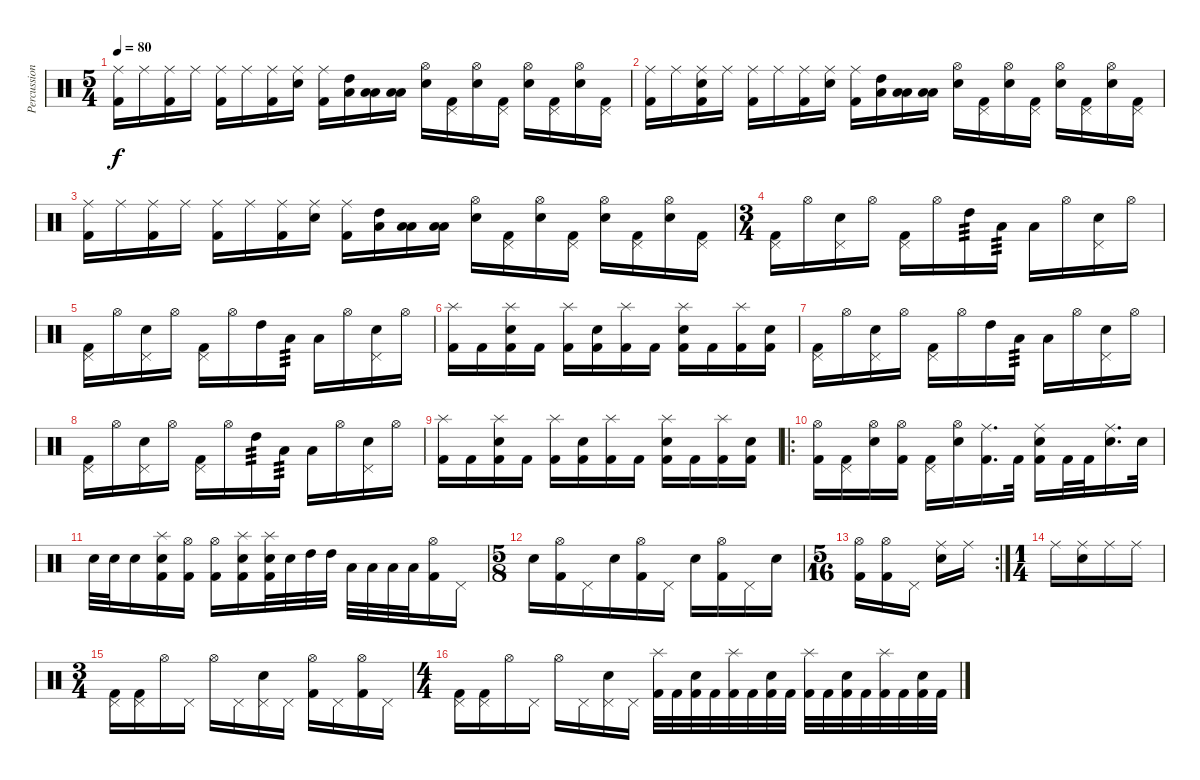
\track ("Percussion" "Percussion") {instrument percussion}
\staff {score}
\articulation defaults
\ts (5 4)
\tempo 80
\clef neutral
\ks c
("Ride (middle)" "Kick (hit) 2").16{dy f} "Ride (middle)".16 ("Ride (middle)" "Kick (hit) 2").16 "Ride (middle)".16 ("Ride (middle)" "Kick (hit) 2").16 "Ride (middle)".16 ("Ride (middle)" "Kick (hit) 2").16 ("Ride (middle)" "Electric Snare (hit)").16 ("Ride (middle)" "Kick (hit) 2").16 ("High Tom (hit)" "Low Tom (hit)").16 ("Low Tom (hit)" "Low Floor Tom (hit)").16 ("Low Floor Tom (hit)" "Low Floor Tom (hit)").16 ("Hi-Hat (open)" "Electric Snare (hit)").16 ("Pedal Hi-Hat (hit)" "Kick (hit) 2").16 ("Hi-Hat (open)" "Electric Snare (hit)").16 ("Pedal Hi-Hat (hit)" "Kick (hit) 2").16 ("Hi-Hat (open)" "Electric Snare (hit)").16 ("Pedal Hi-Hat (hit)" "Kick (hit) 2").16 ("Hi-Hat (open)" "Electric Snare (hit)").16 ("Pedal Hi-Hat (hit)" "Kick (hit) 2").16 |
("Ride (middle)" "Kick (hit) 2").16 "Ride (middle)".16 ("Ride (middle)" "Electric Snare (hit)" "Kick (hit) 2").16 "Ride (middle)".16 ("Ride (middle)" "Kick (hit) 2").16 "Ride (middle)".16 ("Ride (middle)" "Kick (hit) 2").16 ("Ride (middle)" "Electric Snare (hit)").16 ("Ride (middle)" "Kick (hit) 2").16 ("High Tom (hit)" "Low Tom (hit)").16 ("Low Tom (hit)" "Low Floor Tom (hit)").16 ("Low Floor Tom (hit)" "Low Floor Tom (hit)").16 ("Hi-Hat (open)" "Electric Snare (hit)").16 ("Pedal Hi-Hat (hit)" "Kick (hit) 2").16 ("Hi-Hat (open)" "Electric Snare (hit)").16 ("Pedal Hi-Hat (hit)" "Kick (hit) 2").16 ("Hi-Hat (open)" "Electric Snare (hit)").16 ("Pedal Hi-Hat (hit)" "Kick (hit) 2").16 ("Hi-Hat (open)" "Electric Snare (hit)").16 ("Pedal Hi-Hat (hit)" "Kick (hit) 2").16 |
("Ride (middle)" "Kick (hit) 2").16 "Ride (middle)".16 ("Ride (middle)" "Kick (hit) 2").16 "Ride (middle)".16 ("Ride (middle)" "Kick (hit) 2").16 "Ride (middle)".16 ("Ride (middle)" "Kick (hit) 2").16 ("Ride (middle)" "Electric Snare (hit)").16 ("Ride (middle)" "Kick (hit) 2").16 ("High Tom (hit)" "Low Tom (hit)").16 ("Low Tom (hit)" "Low Floor Tom (hit)").16 ("Low Floor Tom (hit)" "Low Floor Tom (hit)").16 ("Hi-Hat (open)" "Electric Snare (hit)").16 ("Pedal Hi-Hat (hit)" "Kick (hit) 2").16 ("Hi-Hat (open)" "Electric Snare (hit)").16 ("Pedal Hi-Hat (hit)" "Kick (hit) 2").16 ("Hi-Hat (open)" "Electric Snare (hit)").16 ("Pedal Hi-Hat (hit)" "Kick (hit) 2").16 ("Hi-Hat (open)" "Electric Snare (hit)").16 ("Pedal Hi-Hat (hit)" "Kick (hit) 2").16 |
\ts (3 4)
("Pedal Hi-Hat (hit)" "Kick (hit) 2").16 "Hi-Hat (open)".16 ("Pedal Hi-Hat (hit)" "Electric Snare (hit)").16 "Hi-Hat (open)".16 ("Pedal Hi-Hat (hit)" "Kick (hit) 2").16 "Hi-Hat (open)".16 "High Tom (hit)".16{tp 3} "Low Tom (hit)".16{tp 3} "Low Floor Tom (hit)".16 "Hi-Hat (open)".16 ("Pedal Hi-Hat (hit)" "Electric Snare (hit)").16 "Hi-Hat (open)".16 |
("Pedal Hi-Hat (hit)" "Kick (hit) 2").16 "Hi-Hat (open)".16 ("Pedal Hi-Hat (hit)" "Electric Snare (hit)").16 "Hi-Hat (open)".16 ("Pedal Hi-Hat (hit)" "Kick (hit) 2").16 "Hi-Hat (open)".16 "High Tom (hit)".16 "Low Tom (hit)".16{tp 3} "Low Floor Tom (hit)".16 "Hi-Hat (open)".16 ("Pedal Hi-Hat (hit)" "Electric Snare (hit)").16 "Hi-Hat (open)".16 |
("Splash (hit)" "Kick (hit) 2").16 "Kick (hit) 2".16 ("Splash (hit)" "Electric Snare (hit)" "Kick (hit) 2").16 "Kick (hit) 2".16 ("Splash (hit)" "Kick (hit) 2").16 ("Electric Snare (hit)" "Kick (hit) 2").16 ("Splash (hit)" "Kick (hit) 2").16 "Kick (hit) 2".16 ("Splash (hit)" "Electric Snare (hit)" "Kick (hit) 2").16 "Kick (hit) 2".16 ("Splash (hit)" "Kick (hit) 2").16 ("Electric Snare (hit)" "Kick (hit) 2").16 |
("Pedal Hi-Hat (hit)" "Kick (hit) 2").16 "Hi-Hat (open)".16 ("Pedal Hi-Hat (hit)" "Electric Snare (hit)").16 "Hi-Hat (open)".16 ("Pedal Hi-Hat (hit)" "Kick (hit) 2").16 "Hi-Hat (open)".16 "High Tom (hit)".16 "Low Tom (hit)".16{tp 3} "Low Floor Tom (hit)".16 "Hi-Hat (open)".16 ("Pedal Hi-Hat (hit)" "Electric Snare (hit)").16 "Hi-Hat (open)".16 |
("Pedal Hi-Hat (hit)" "Kick (hit) 2").16 "Hi-Hat (open)".16 ("Pedal Hi-Hat (hit)" "Electric Snare (hit)").16 "Hi-Hat (open)".16 ("Pedal Hi-Hat (hit)" "Kick (hit) 2").16 "Hi-Hat (open)".16 "High Tom (hit)".16{tp 3} "Low Tom (hit)".16{tp 3} "Low Floor Tom (hit)".16 "Hi-Hat (open)".16 ("Pedal Hi-Hat (hit)" "Electric Snare (hit)").16 "Hi-Hat (open)".16 |
("Splash (hit)" "Kick (hit) 2").16 "Kick (hit) 2".16 ("Splash (hit)" "Electric Snare (hit)" "Kick (hit) 2").16 "Kick (hit) 2".16 ("Splash (hit)" "Kick (hit) 2").16 ("Electric Snare (hit)" "Kick (hit) 2").16 ("Splash (hit)" "Kick (hit) 2").16 "Kick (hit) 2".16 ("Splash (hit)" "Electric Snare (hit)" "Kick (hit) 2").16 "Kick (hit) 2".16 ("Splash (hit)" "Kick (hit) 2").16 ("Electric Snare (hit)" "Kick (hit) 2").16 |
\ro
("Hi-Hat (open)" "Kick (hit) 2").16 ("Pedal Hi-Hat (hit)" "Kick (hit) 2").16 ("Hi-Hat (open)" "Electric Snare (hit)").16 ("Hi-Hat (open)" "Kick (hit) 2").16 ("Pedal Hi-Hat (hit)" "Kick (hit) 2").16 ("Hi-Hat (open)" "Electric Snare (hit)").16 ("Ride (middle)" "Kick (hit) 2").16{d} "Kick (hit) 2".32 ("Ride (middle)" "Electric Snare (hit)" "Kick (hit) 2").16 "Kick (hit) 2".32 "Kick (hit) 2".32 ("Ride (middle)" "Electric Snare (hit)").16{d} "Electric Snare (hit)".32 |
"Electric Snare (hit)".32 "Electric Snare (hit)".32 "Electric Snare (hit)".16 ("Splash (hit)" "Electric Snare (hit)" "Kick (hit) 2").16 ("Hi-Hat (open)" "Kick (hit) 2").16 ("Hi-Hat (open)" "Kick (hit) 2").16 ("Splash (hit)" "Electric Snare (hit)" "Kick (hit) 2").16 ("Splash (hit)" "Electric Snare (hit)" "Kick (hit) 2").32 "Electric Snare (hit)".32 "High Tom (hit)".32 "High Tom (hit)".32 "Low Tom (hit)".32 "Low Tom (hit)".32 "Low Floor Tom (hit)".32 "Low Floor Tom (hit)".32 ("Hi-Hat (open)" "Kick (hit) 2").16 "Pedal Hi-Hat (hit)".16 |
\ts (5 8)
"Electric Snare (hit)".16 ("Hi-Hat (open)" "Kick (hit) 2").16 "Pedal Hi-Hat (hit)".16 "Electric Snare (hit)".16 ("Hi-Hat (open)" "Kick (hit) 2").16 "Pedal Hi-Hat (hit)".16 "Electric Snare (hit)".16 ("Hi-Hat (open)" "Kick (hit) 2").16 "Pedal Hi-Hat (hit)".16 "Electric Snare (hit)".16 |
\rc 2
\ts (5 16)
("Hi-Hat (open)" "Kick (hit) 2").16 ("Hi-Hat (open)" "Kick (hit) 2").16 "Pedal Hi-Hat (hit)".16 ("Ride (middle)" "Electric Snare (hit)").16 "Ride (middle)".16 |
\ts (1 4)
"Ride (middle)".16 ("Ride (middle)" "Electric Snare (hit)").16 "Ride (middle)".16 "Ride (middle)".16 |
\ts (3 4)
("Pedal Hi-Hat (hit)" "Kick (hit) 2").16 ("Pedal Hi-Hat (hit)" "Kick (hit) 2").16 "Hi-Hat (open)".16 "Pedal Hi-Hat (hit)".16 "Hi-Hat (open)".16 "Pedal Hi-Hat (hit)".16 ("Pedal Hi-Hat (hit)" "Electric Snare (hit)").16 "Pedal Hi-Hat (hit)".16 ("Hi-Hat (open)" "Kick (hit) 2").16 "Pedal Hi-Hat (hit)".16 ("Hi-Hat (open)" "Kick (hit) 2").16 "Pedal Hi-Hat (hit)".16 |
\ts (4 4)
("Pedal Hi-Hat (hit)" "Kick (hit) 2").16 ("Pedal Hi-Hat (hit)" "Kick (hit) 2").16 "Hi-Hat (open)".16 "Pedal Hi-Hat (hit)".16 "Hi-Hat (open)".16 "Pedal Hi-Hat (hit)".16 ("Pedal Hi-Hat (hit)" "Electric Snare (hit)").16 "Pedal Hi-Hat (hit)".16 ("Splash (hit)" "Kick (hit) 2").32 "Kick (hit) 2".32 ("Electric Snare (hit)" "Kick (hit) 2").32 "Kick (hit) 2".32 ("Splash (hit)" "Kick (hit) 2").32 "Kick (hit) 2".32 ("Electric Snare (hit)" "Kick (hit) 2").32 "Kick (hit) 2".32 ("Splash (hit)" "Kick (hit) 2").32 "Kick (hit) 2".32 ("Electric Snare (hit)" "Kick (hit) 2").32 "Kick (hit) 2".32 ("Splash (hit)" "Kick (hit) 2").32 "Kick (hit) 2".32 ("Electric Snare (hit)" "Kick (hit) 2").32 "Kick (hit) 2".32
